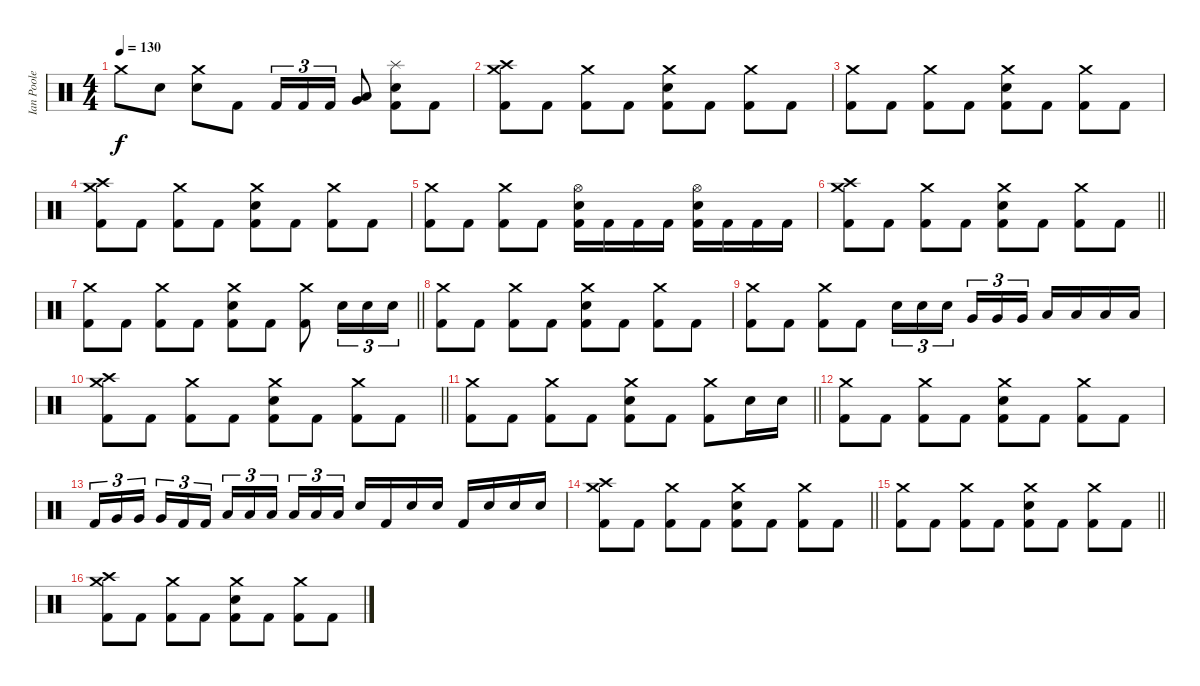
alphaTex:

\track ("Ian Poole" "Ian Poole") {instrument percussion}
\staff {score}
\articulation defaults
\ts (4 4)
\tempo 130
\clef neutral
\ks c "Crash medium (hit)".8{dy f} "Electric Snare (hit)".8
("Crash medium (hit)" "Electric Snare (hit)").8 "Kick (hit) 2".8 "Kick (hit) 2".16{tu (3 2)} "Kick (hit) 2".16{tu (3 2)} "Kick (hit) 2".16{tu (3 2)} ("Very Low Tom (hit)" "Low Floor Tom (hit)").8 ("Splash (hit)" "Electric Snare (hit)" "Kick (hit) 2").8 "Kick (hit) 2".8 |
("Crash medium (hit)" "Crash high (hit)" "Kick (hit) 2").8 "Kick (hit) 2".8 ("Crash medium (hit)" "Kick (hit) 2").8 "Kick (hit) 2".8 ("Crash medium (hit)" "Electric Snare (hit)" "Kick (hit) 2").8 "Kick (hit) 2".8 ("Crash medium (hit)" "Kick (hit) 2").8 "Kick (hit) 2".8 |
("Crash medium (hit)" "Kick (hit) 2").8 "Kick (hit) 2".8 ("Crash medium (hit)" "Kick (hit) 2").8 "Kick (hit) 2".8 ("Crash medium (hit)" "Electric Snare (hit)" "Kick (hit) 2").8 "Kick (hit) 2".8 ("Crash medium (hit)" "Kick (hit) 2").8 "Kick (hit) 2".8 |
("Crash medium (hit)" "Crash high (hit)" "Kick (hit) 2").8 "Kick (hit) 2".8 ("Crash medium (hit)" "Kick (hit) 2").8 "Kick (hit) 2".8 ("Crash medium (hit)" "Electric Snare (hit)" "Kick (hit) 2").8 "Kick (hit) 2".8 ("Crash medium (hit)" "Kick (hit) 2").8 "Kick (hit) 2".8 |
("Crash medium (hit)" "Kick (hit) 2").8 "Kick (hit) 2".8 ("Crash medium (hit)" "Kick (hit) 2").8 "Kick (hit) 2".8 ("Hi-Hat (open)" "Electric Snare (hit)" "Kick (hit) 2").16 "Kick (hit) 2".16 "Kick (hit) 2".16 "Kick (hit) 2".16 ("Hi-Hat (open)" "Electric Snare (hit)" "Kick (hit) 2").16 "Kick (hit) 2".16 "Kick (hit) 2".16 "Kick (hit) 2".16 |
\barLineRight lightlight
("Crash medium (hit)" "Crash high (hit)" "Kick (hit) 2").8 "Kick (hit) 2".8 ("Crash medium (hit)" "Kick (hit) 2").8 "Kick (hit) 2".8 ("Crash medium (hit)" "Electric Snare (hit)" "Kick (hit) 2").8 "Kick (hit) 2".8 ("Crash medium (hit)" "Kick (hit) 2").8 "Kick (hit) 2".8 |
\barLineRight lightlight
("Crash medium (hit)" "Kick (hit) 2").8 "Kick (hit) 2".8 ("Crash medium (hit)" "Kick (hit) 2").8 "Kick (hit) 2".8 ("Crash medium (hit)" "Electric Snare (hit)" "Kick (hit) 2").8 "Kick (hit) 2".8 ("Crash medium (hit)" "Kick (hit) 2").8 "Electric Snare (hit)".16{tu (3 2)} "Electric Snare (hit)".16{tu (3 2)} "Electric Snare (hit)".16{tu (3 2)} |
("Crash medium (hit)" "Kick (hit) 2").8 "Kick (hit) 2".8 ("Crash medium (hit)" "Kick (hit) 2").8 "Kick (hit) 2".8 ("Crash medium (hit)" "Electric Snare (hit)" "Kick (hit) 2").8 "Kick (hit) 2".8 ("Crash medium (hit)" "Kick (hit) 2").8 "Kick (hit) 2".8 |
("Crash medium (hit)" "Kick (hit) 2").8 "Kick (hit) 2".8 ("Crash medium (hit)" "Kick (hit) 2").8 "Kick (hit) 2".8 "Electric Snare (hit)".16{tu (3 2)} "Electric Snare (hit)".16{tu (3 2)} "Electric Snare (hit)".16{tu (3 2)} "Very Low Tom (hit)".16{tu (3 2)} "Very Low Tom (hit)".16{tu (3 2)} "Very Low Tom (hit)".16{tu (3 2)} "Low Floor Tom (hit)".16 "Low Floor Tom (hit)".16 "Low Tom (hit)".16 "Low Tom (hit)".16 |
\barLineRight lightlight
("Crash medium (hit)" "Crash high (hit)" "Kick (hit) 2").8 "Kick (hit) 2".8 ("Crash medium (hit)" "Kick (hit) 2").8 "Kick (hit) 2".8 ("Crash medium (hit)" "Electric Snare (hit)" "Kick (hit) 2").8 "Kick (hit) 2".8 ("Crash medium (hit)" "Kick (hit) 2").8 "Kick (hit) 2".8 |
\barLineRight lightlight
("Crash medium (hit)" "Kick (hit) 2").8 "Kick (hit) 2".8 ("Crash medium (hit)" "Kick (hit) 2").8 "Kick (hit) 2".8 ("Crash medium (hit)" "Electric Snare (hit)" "Kick (hit) 2").8 "Kick (hit) 2".8 ("Crash medium (hit)" "Kick (hit) 2").8 "Electric Snare (hit)".16 "Electric Snare (hit)".16 |
("Crash medium (hit)" "Kick (hit) 2").8 "Kick (hit) 2".8 ("Crash medium (hit)" "Kick (hit) 2").8 "Kick (hit) 2".8 ("Crash medium (hit)" "Electric Snare (hit)" "Kick (hit) 2").8 "Kick (hit) 2".8 ("Crash medium (hit)" "Kick (hit) 2").8 "Kick (hit) 2".8 |
"Kick (hit) 2".16{tu (3 2)} "Very Low Tom (hit)".16{tu (3 2)} "Very Low Tom (hit)".16{tu (3 2)} "Very Low Tom (hit)".16{tu (3 2)} "Kick (hit) 2".16{tu (3 2)} "Kick (hit) 2".16{tu (3 2)} "Low Tom (hit)".16{tu (3 2)} "Low Tom (hit)".16{tu (3 2)} "Low Tom (hit)".16{tu (3 2)} "Low Floor Tom (hit)".16{tu (3 2)} "Low Floor Tom (hit)".16{tu (3 2)} "Low Floor Tom (hit)".16{tu (3 2)} "Electric Snare (hit)".16 "Kick (hit) 2".16 "Electric Snare (hit)".16 "Electric Snare (hit)".16 "Kick (hit) 2".16 "Electric Snare (hit)".16 "Electric Snare (hit)".16 "Electric Snare (hit)".16 |
\barLineRight lightlight
("Crash medium (hit)" "Crash high (hit)" "Kick (hit) 2").8 "Kick (hit) 2".8 ("Crash medium (hit)" "Kick (hit) 2").8 "Kick (hit) 2".8 ("Crash medium (hit)" "Electric Snare (hit)" "Kick (hit) 2").8 "Kick (hit) 2".8 ("Crash medium (hit)" "Kick (hit) 2").8 "Kick (hit) 2".8 |
\barLineRight lightlight
("Crash medium (hit)" "Kick (hit) 2").8 "Kick (hit) 2".8 ("Crash medium (hit)" "Kick (hit) 2").8 "Kick (hit) 2".8 ("Crash medium (hit)" "Electric Snare (hit)" "Kick (hit) 2").8 "Kick (hit) 2".8 ("Crash medium (hit)" "Kick (hit) 2").8 "Kick (hit) 2".8 |
("Crash medium (hit)" "Crash high (hit)" "Kick (hit) 2").8 "Kick (hit) 2".8 ("Crash medium (hit)" "Kick (hit) 2").8 "Kick (hit) 2".8 ("Crash medium (hit)" "Electric Snare (hit)" "Kick (hit) 2").8 "Kick (hit) 2".8 ("Crash medium (hit)" "Kick (hit) 2").8 "Kick (hit) 2".8
